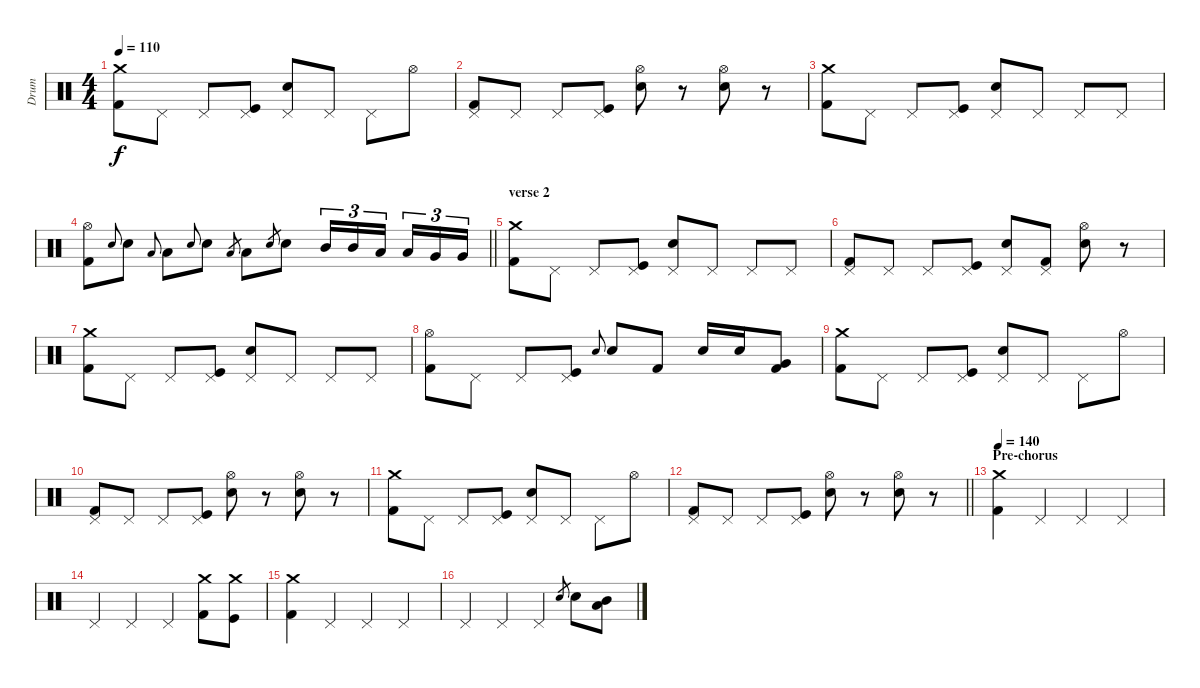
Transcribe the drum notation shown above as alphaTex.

\track ("Drum" "Drum") {instrument percussion}
\staff {score}
\articulation defaults
\ts (4 4)
\tempo 110
\clef neutral
\ks c
("Crash medium (hit)" "Kick (hit) 2").8{dy f} "Pedal Hi-Hat (hit)".8 "Pedal Hi-Hat (hit)".8 ("Pedal Hi-Hat (hit)" "Kick (hit)").8 ("Pedal Hi-Hat (hit)" "Snare (hit) 2").8 "Pedal Hi-Hat (hit)".8 "Pedal Hi-Hat (hit)".8 "Hi-Hat (open)".8 |
("Pedal Hi-Hat (hit)" "Kick (hit) 2").8 "Pedal Hi-Hat (hit)".8 "Pedal Hi-Hat (hit)".8 ("Pedal Hi-Hat (hit)" "Kick (hit)").8 ("Hi-Hat (open)" "Snare (hit) 2").8 r.8 ("Hi-Hat (open)" "Snare (hit) 2").8 r.8 |
("Crash medium (hit)" "Kick (hit) 2").8 "Pedal Hi-Hat (hit)".8 "Pedal Hi-Hat (hit)".8 ("Pedal Hi-Hat (hit)" "Kick (hit)").8 ("Pedal Hi-Hat (hit)" "Snare (hit) 2").8 "Pedal Hi-Hat (hit)".8 "Pedal Hi-Hat (hit)".8 "Pedal Hi-Hat (hit)".8 |
\barLineRight lightlight
("Hi-Hat (open)" "Kick (hit) 2").8 "Snare (hit) 2".8{gr onbeat} "Snare (hit) 2".8 "Low Tom (hit)".8{gr onbeat} "Low Tom (hit)".8 "Snare (hit) 2".8{gr onbeat} "Snare (hit) 2".8 "Low Tom (hit)".8{gr} "Low Tom (hit)".8 "Snare (hit) 2".8{gr} "Snare (hit) 2".8 "Mid Tom (hit)".16{tu (3 2)} "Mid Tom (hit)".16{tu (3 2)} "Low Tom (hit)".16{tu (3 2) beam splitsecondary} "Low Tom (hit)".16{tu (3 2)} "Very Low Tom (hit)".16{tu (3 2)} "Very Low Tom (hit)".16{tu (3 2)} |
\section ("" "verse 2")
("Crash medium (hit)" "Kick (hit) 2").8 "Pedal Hi-Hat (hit)".8 "Pedal Hi-Hat (hit)".8 ("Pedal Hi-Hat (hit)" "Kick (hit)").8 ("Pedal Hi-Hat (hit)" "Snare (hit) 2").8 "Pedal Hi-Hat (hit)".8 "Pedal Hi-Hat (hit)".8 "Pedal Hi-Hat (hit)".8 |
("Pedal Hi-Hat (hit)" "Kick (hit) 2").8 "Pedal Hi-Hat (hit)".8 "Pedal Hi-Hat (hit)".8 ("Pedal Hi-Hat (hit)" "Kick (hit)").8 ("Pedal Hi-Hat (hit)" "Snare (hit) 2").8 ("Pedal Hi-Hat (hit)" "Kick (hit) 2").8 ("Hi-Hat (open)" "Snare (hit) 2").8 r.8 |
("Crash medium (hit)" "Kick (hit) 2").8 "Pedal Hi-Hat (hit)".8 "Pedal Hi-Hat (hit)".8 ("Pedal Hi-Hat (hit)" "Kick (hit)").8 ("Pedal Hi-Hat (hit)" "Snare (hit) 2").8 "Pedal Hi-Hat (hit)".8 "Pedal Hi-Hat (hit)".8 "Pedal Hi-Hat (hit)".8 |
("Hi-Hat (open)" "Kick (hit) 2").8 "Pedal Hi-Hat (hit)".8 "Pedal Hi-Hat (hit)".8 ("Pedal Hi-Hat (hit)" "Kick (hit)").8 "Snare (hit) 2".8{gr onbeat} "Snare (hit) 2".8 "Kick (hit) 2".8 "Snare (hit) 2".16 "Snare (hit) 2".16 ("Very Low Tom (hit)" "Kick (hit) 2").8 |
("Crash medium (hit)" "Kick (hit) 2").8 "Pedal Hi-Hat (hit)".8 "Pedal Hi-Hat (hit)".8 ("Pedal Hi-Hat (hit)" "Kick (hit)").8 ("Pedal Hi-Hat (hit)" "Snare (hit) 2").8 "Pedal Hi-Hat (hit)".8 "Pedal Hi-Hat (hit)".8 "Hi-Hat (open)".8 |
("Pedal Hi-Hat (hit)" "Kick (hit) 2").8 "Pedal Hi-Hat (hit)".8 "Pedal Hi-Hat (hit)".8 ("Pedal Hi-Hat (hit)" "Kick (hit)").8 ("Hi-Hat (open)" "Snare (hit) 2").8 r.8 ("Hi-Hat (open)" "Snare (hit) 2").8 r.8 |
("Crash medium (hit)" "Kick (hit) 2").8 "Pedal Hi-Hat (hit)".8 "Pedal Hi-Hat (hit)".8 ("Pedal Hi-Hat (hit)" "Kick (hit)").8 ("Pedal Hi-Hat (hit)" "Snare (hit) 2").8 "Pedal Hi-Hat (hit)".8 "Pedal Hi-Hat (hit)".8 "Hi-Hat (open)".8 |
\barLineRight lightlight
("Pedal Hi-Hat (hit)" "Kick (hit) 2").8 "Pedal Hi-Hat (hit)".8 "Pedal Hi-Hat (hit)".8 ("Pedal Hi-Hat (hit)" "Kick (hit)").8 ("Hi-Hat (open)" "Snare (hit) 2").8 r.8 ("Hi-Hat (open)" "Snare (hit) 2").8 r.8 |
\section ("" "Pre-chorus")
\tempo 140
("Crash medium (hit)" "Kick (hit) 2").4 "Pedal Hi-Hat (hit)".4 "Pedal Hi-Hat (hit)".4 "Pedal Hi-Hat (hit)".4 |
"Pedal Hi-Hat (hit)".4 "Pedal Hi-Hat (hit)".4 "Pedal Hi-Hat (hit)".4 ("Crash medium (hit)" "Kick (hit) 2").8 ("Crash medium (hit)" "Kick (hit)").8 |
("Crash medium (hit)" "Kick (hit) 2").4 "Pedal Hi-Hat (hit)".4 "Pedal Hi-Hat (hit)".4 "Pedal Hi-Hat (hit)".4 |
"Pedal Hi-Hat (hit)".4 "Pedal Hi-Hat (hit)".4 "Pedal Hi-Hat (hit)".4 "Snare (hit) 2".8{gr} "Snare (hit) 2".8 ("Mid Tom (hit)" "Low Tom (hit)").8
